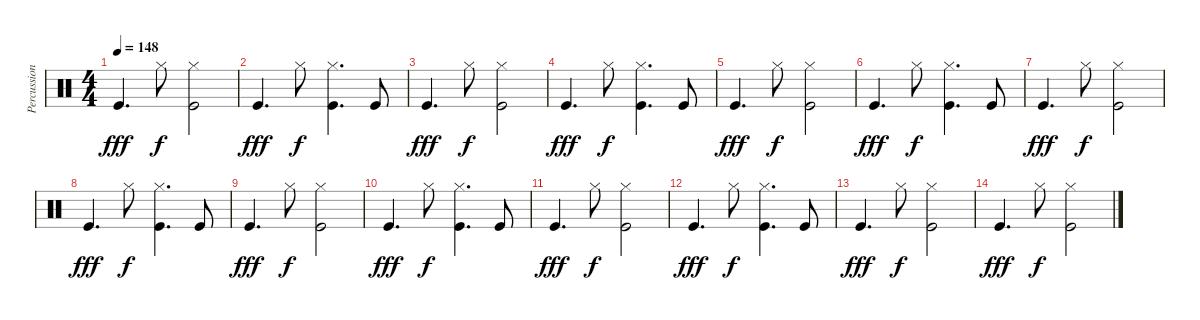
\track ("Percussion" "Percussion") {instrument percussion}
\staff {score}
\articulation defaults
\ts (4 4)
\tempo 148
\clef neutral
\ks c "Kick (hit)".4{d dy fff} "Hi-Hat (closed)".8{dy f}
("Kick (hit)" "Hi-Hat (closed)").2 |
"Kick (hit)".4{d dy fff} "Hi-Hat (closed)".8{dy f} ("Hi-Hat (closed)" "Kick (hit)").4{d} "Kick (hit)".8 |
"Kick (hit)".4{d dy fff} "Hi-Hat (closed)".8{dy f} ("Kick (hit)" "Hi-Hat (closed)").2 |
"Kick (hit)".4{d dy fff} "Hi-Hat (closed)".8{dy f} ("Hi-Hat (closed)" "Kick (hit)").4{d} "Kick (hit)".8 |
"Kick (hit)".4{d dy fff} "Hi-Hat (closed)".8{dy f} ("Kick (hit)" "Hi-Hat (closed)").2 |
"Kick (hit)".4{d dy fff} "Hi-Hat (closed)".8{dy f} ("Hi-Hat (closed)" "Kick (hit)").4{d} "Kick (hit)".8 |
"Kick (hit)".4{d dy fff} "Hi-Hat (closed)".8{dy f} ("Kick (hit)" "Hi-Hat (closed)").2 |
"Kick (hit)".4{d dy fff} "Hi-Hat (closed)".8{dy f} ("Hi-Hat (closed)" "Kick (hit)").4{d} "Kick (hit)".8 |
"Kick (hit)".4{d dy fff} "Hi-Hat (closed)".8{dy f} ("Kick (hit)" "Hi-Hat (closed)").2 |
"Kick (hit)".4{d dy fff} "Hi-Hat (closed)".8{dy f} ("Hi-Hat (closed)" "Kick (hit)").4{d} "Kick (hit)".8 |
"Kick (hit)".4{d dy fff} "Hi-Hat (closed)".8{dy f} ("Kick (hit)" "Hi-Hat (closed)").2 |
"Kick (hit)".4{d dy fff} "Hi-Hat (closed)".8{dy f} ("Hi-Hat (closed)" "Kick (hit)").4{d} "Kick (hit)".8 |
"Kick (hit)".4{d dy fff} "Hi-Hat (closed)".8{dy f} ("Kick (hit)" "Hi-Hat (closed)").2 |
"Kick (hit)".4{d dy fff} "Hi-Hat (closed)".8{dy f} ("Kick (hit)" "Hi-Hat (closed)").2
